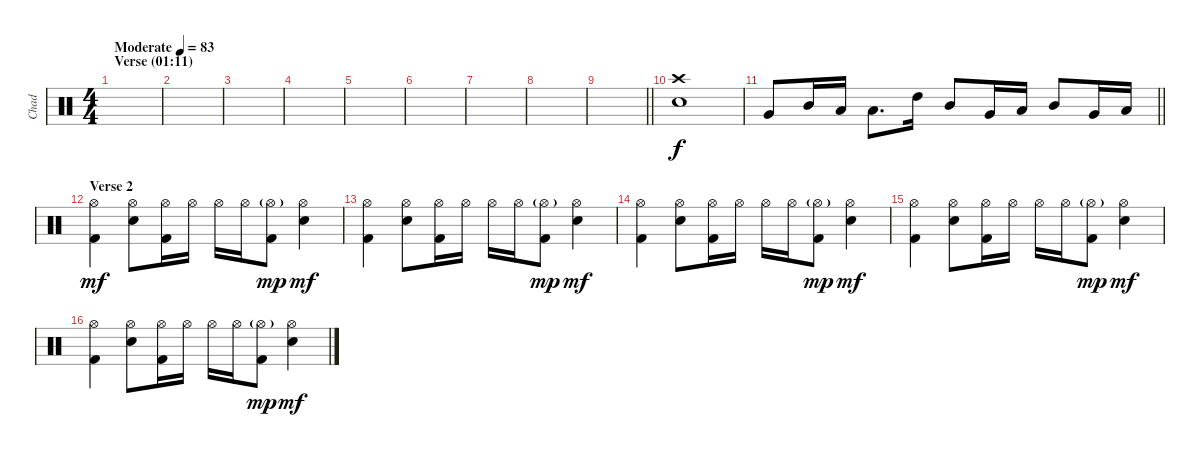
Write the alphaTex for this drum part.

\track ("Chad" "Chad") {instrument percussion}
\staff {score}
\articulation defaults
\ts (4 4)
\section ("" "Verse (01:11)")
\tempo (83 "Moderate")
\clef neutral
\ks c
|
|
|
|
|
|
|
|
\barLineRight lightlight
|
\section ("" "")
("Crash high (hit)" "Electric Snare (hit)").1 |
\barLineRight lightlight "Very Low Tom (hit)".8{dy f} "Mid Tom (hit)".16 "Low Tom (hit)".16 "Low Tom (hit)".8{d} "High Tom (hit)".16 "Mid Tom (hit)".8 "Very Low Tom (hit)".16 "Low Tom (hit)".16 "Mid Tom (hit)".8 "Very Low Tom (hit)".16 "Low Tom (hit)".16
|
\section ("" "Verse 2")
("Hi-Hat (open)" "Kick (hit) 2").4{dy mf} ("Hi-Hat (open)" "Electric Snare (hit)").8 ("Hi-Hat (open)" "Kick (hit) 2").16 "Hi-Hat (open)".16 "Hi-Hat (open)".16 "Hi-Hat (open)".16 ("Hi-Hat (open)"{g} "Kick (hit) 2").8{dy mp} ("Hi-Hat (open)" "Electric Snare (hit)").4{dy mf} |
("Hi-Hat (open)" "Kick (hit) 2").4 ("Hi-Hat (open)" "Electric Snare (hit)").8 ("Hi-Hat (open)" "Kick (hit) 2").16 "Hi-Hat (open)".16 "Hi-Hat (open)".16 "Hi-Hat (open)".16 ("Hi-Hat (open)"{g} "Kick (hit) 2").8{dy mp} ("Hi-Hat (open)" "Electric Snare (hit)").4{dy mf} |
("Hi-Hat (open)" "Kick (hit) 2").4 ("Hi-Hat (open)" "Electric Snare (hit)").8 ("Hi-Hat (open)" "Kick (hit) 2").16 "Hi-Hat (open)".16 "Hi-Hat (open)".16 "Hi-Hat (open)".16 ("Hi-Hat (open)"{g} "Kick (hit) 2").8{dy mp} ("Hi-Hat (open)" "Electric Snare (hit)").4{dy mf} |
("Hi-Hat (open)" "Kick (hit) 2").4 ("Hi-Hat (open)" "Electric Snare (hit)").8 ("Hi-Hat (open)" "Kick (hit) 2").16 "Hi-Hat (open)".16 "Hi-Hat (open)".16 "Hi-Hat (open)".16 ("Hi-Hat (open)"{g} "Kick (hit) 2").8{dy mp} ("Hi-Hat (open)" "Electric Snare (hit)").4{dy mf} |
("Hi-Hat (open)" "Kick (hit) 2").4 ("Hi-Hat (open)" "Electric Snare (hit)").8 ("Hi-Hat (open)" "Kick (hit) 2").16 "Hi-Hat (open)".16 "Hi-Hat (open)".16 "Hi-Hat (open)".16 ("Hi-Hat (open)"{g} "Kick (hit) 2").8{dy mp} ("Hi-Hat (open)" "Electric Snare (hit)").4{dy mf}
